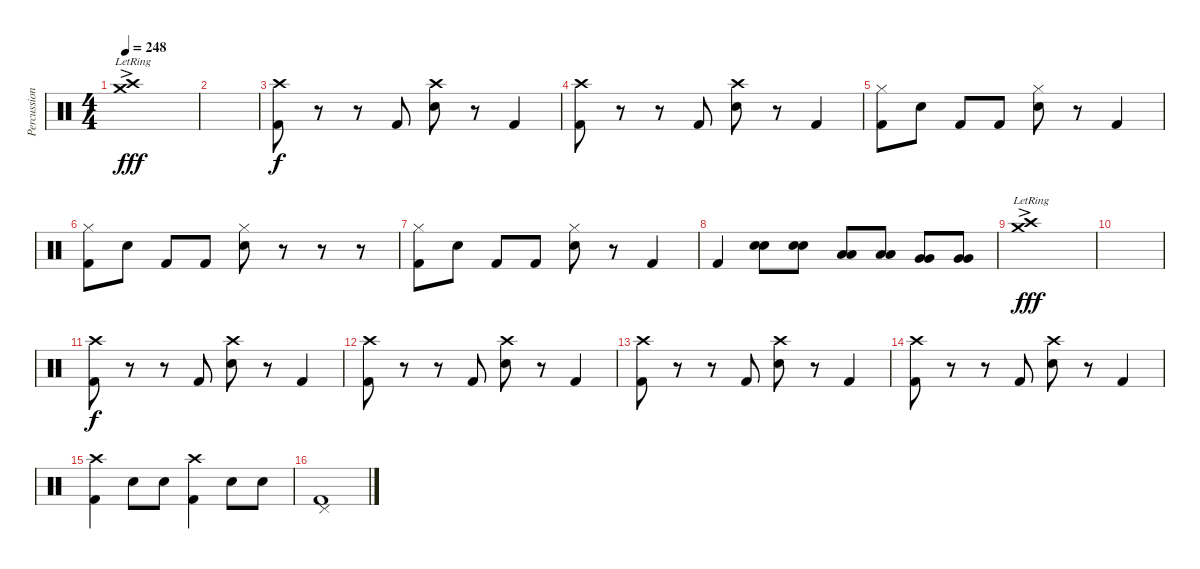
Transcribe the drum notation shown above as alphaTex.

\track ("Percussion" "Percussion") {instrument percussion}
\staff {score}
\articulation defaults
\ts (4 4)
\tempo 248
\clef neutral
\ks c
("Crash high (hit)"{ac lr} "Crash medium (hit)"{ac lr}).1{dy fff} |
|
("Crash high (hit)" "Kick (hit) 2").8{dy f} r.8 r.8 "Kick (hit) 2".8 ("Crash high (hit)" "Snare (hit) 2").8 r.8 "Kick (hit) 2".4 |
("Crash high (hit)" "Kick (hit) 2").8 r.8 r.8 "Kick (hit) 2".8 ("Crash high (hit)" "Snare (hit) 2").8 r.8 "Kick (hit) 2".4 |
("Hi-Hat (closed)" "Kick (hit) 2").8 "Snare (hit) 2".8 "Kick (hit) 2".8 "Kick (hit) 2".8 ("Hi-Hat (closed)" "Snare (hit) 2").8 r.8 "Kick (hit) 2".4 |
("Hi-Hat (closed)" "Kick (hit) 2").8 "Snare (hit) 2".8 "Kick (hit) 2".8 "Kick (hit) 2".8 ("Hi-Hat (closed)" "Snare (hit) 2").8 r.8 r.8 r.8 |
("Hi-Hat (closed)" "Kick (hit) 2").8 "Snare (hit) 2".8 "Kick (hit) 2".8 "Kick (hit) 2".8 ("Hi-Hat (closed)" "Snare (hit) 2").8 r.8 "Kick (hit) 2".4 |
"Kick (hit) 2".4 ("Snare (hit) 2" "Snare (hit) 2").8 ("Snare (hit) 2" "Snare (hit) 2").8 ("Low Tom (hit)" "Low Tom (hit)").8 ("Low Tom (hit)" "Low Tom (hit)").8 ("Very Low Tom (hit)" "Very Low Tom (hit)").8 ("Very Low Tom (hit)" "Very Low Tom (hit)").8 |
("Crash high (hit)"{ac lr} "Crash medium (hit)"{ac lr}).1{dy fff} |
|
("Crash high (hit)" "Kick (hit) 2").8{dy f} r.8 r.8 "Kick (hit) 2".8 ("Crash high (hit)" "Snare (hit) 2").8 r.8 "Kick (hit) 2".4 |
("Crash high (hit)" "Kick (hit) 2").8 r.8 r.8 "Kick (hit) 2".8 ("Crash high (hit)" "Snare (hit) 2").8 r.8 "Kick (hit) 2".4 |
("Crash high (hit)" "Kick (hit) 2").8 r.8 r.8 "Kick (hit) 2".8 ("Crash high (hit)" "Snare (hit) 2").8 r.8 "Kick (hit) 2".4 |
("Crash high (hit)" "Kick (hit) 2").8 r.8 r.8 "Kick (hit) 2".8 ("Crash high (hit)" "Snare (hit) 2").8 r.8 "Kick (hit) 2".4 |
("Crash high (hit)" "Kick (hit) 2").4 "Snare (hit) 2".8 "Snare (hit) 2".8 ("Crash high (hit)" "Kick (hit) 2").4 "Snare (hit) 2".8 "Snare (hit) 2".8 |
("Pedal Hi-Hat (hit)" "Kick (hit) 2").1
